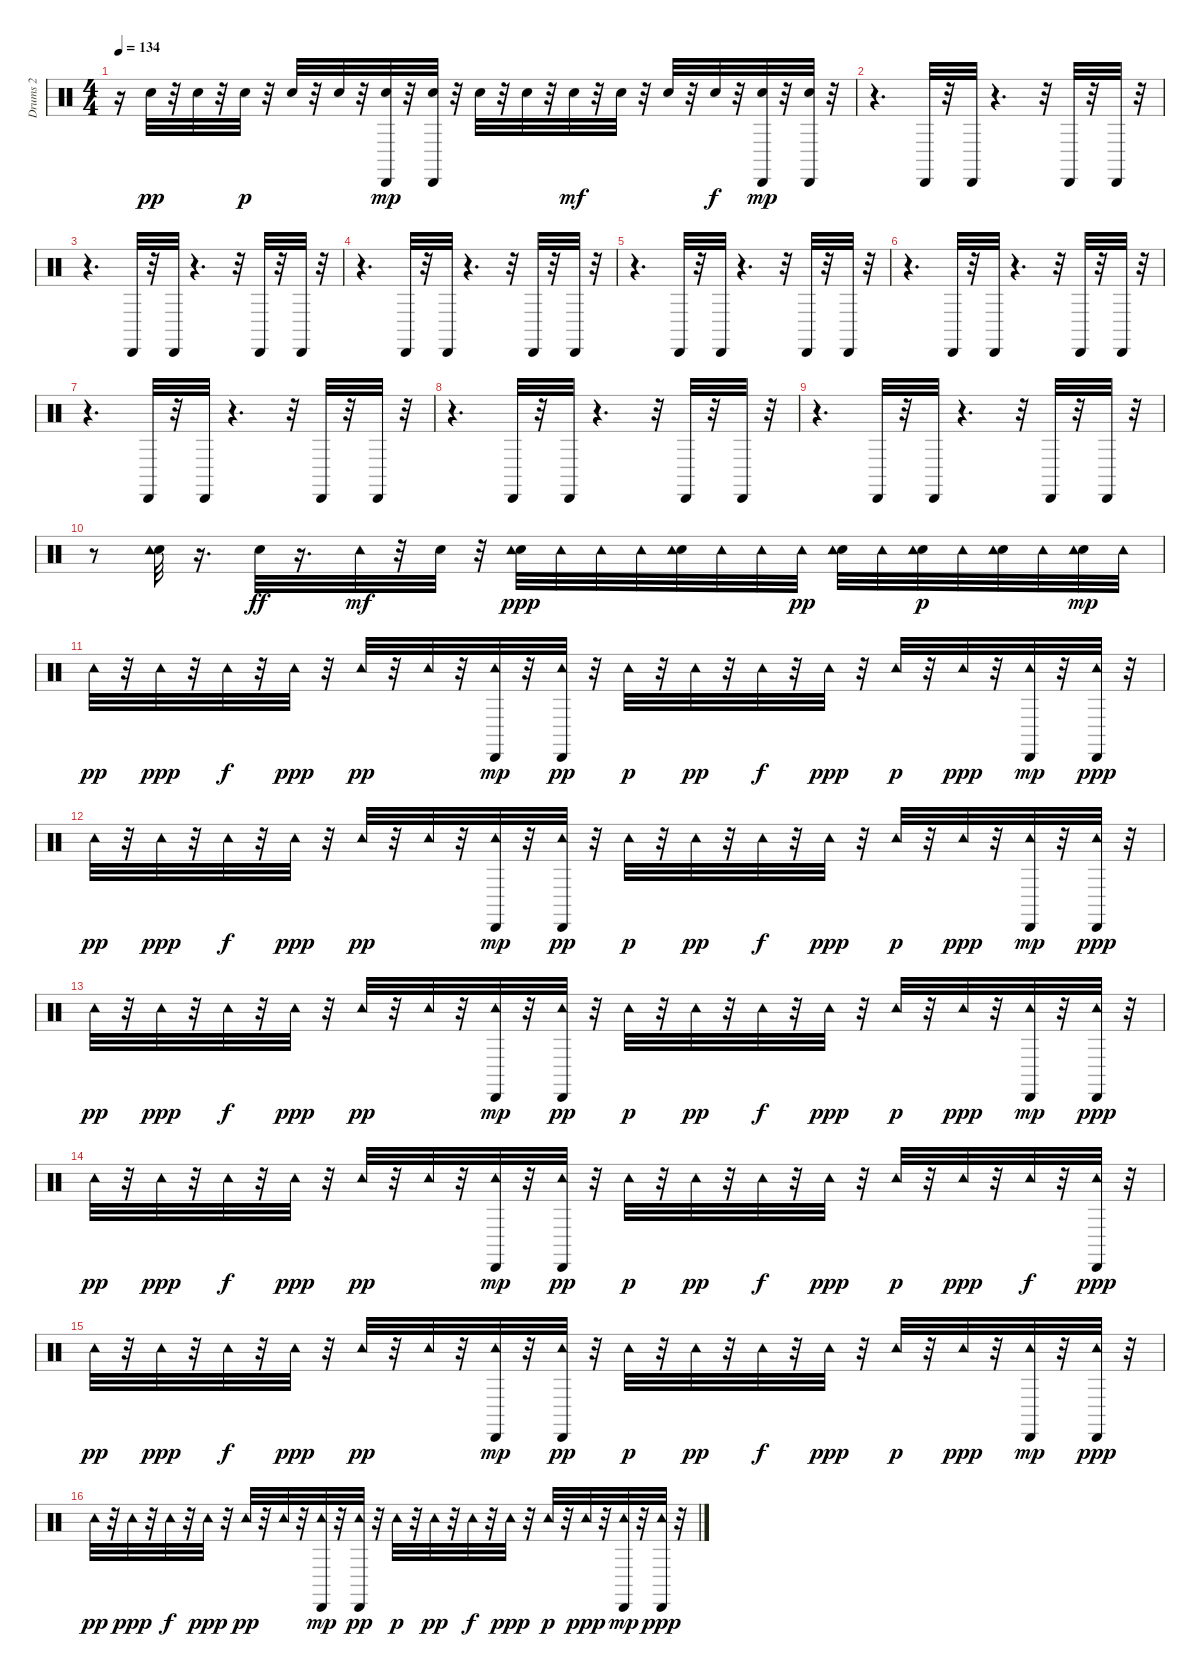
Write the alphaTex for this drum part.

\track ("Drums 2" "Drums 2") {instrument percussion}
\staff {score}
\articulation defaults
\ts (4 4)
\tempo 134
\clef neutral
\ks c
r.16{dy mp} "Snare (hit) 2".32{dy pp} r.32 "Snare (hit) 2".32 r.32 "Snare (hit) 2".32{dy p} r.32 "Snare (hit) 2".32 r.32 "Snare (hit) 2".32 r.32 ("Snare (hit) 2" "Cabasa (hit)").32{dy mp} r.32 ("Snare (hit) 2" "Cabasa (hit)").32 r.32 "Snare (hit) 2".32 r.32 "Snare (hit) 2".32 r.32 "Snare (hit) 2".32{dy mf} r.32 "Snare (hit) 2".32 r.32 "Snare (hit) 2".32 r.32 "Snare (hit) 2".32{dy f} r.32 ("Snare (hit) 2" "Cabasa (hit)").32{dy mp} r.32 ("Snare (hit) 2" "Cabasa (hit)").32 r.32 |
r.4{d} "Cabasa (hit)".32 r.32 "Cabasa (hit)".32 r.4{d} r.32 "Cabasa (hit)".32 r.32 "Cabasa (hit)".32 r.32 |
r.4{d} "Cabasa (hit)".32 r.32 "Cabasa (hit)".32 r.4{d} r.32 "Cabasa (hit)".32 r.32 "Cabasa (hit)".32 r.32 |
r.4{d} "Cabasa (hit)".32 r.32 "Cabasa (hit)".32 r.4{d} r.32 "Cabasa (hit)".32 r.32 "Cabasa (hit)".32 r.32 |
r.4{d} "Cabasa (hit)".32 r.32 "Cabasa (hit)".32 r.4{d} r.32 "Cabasa (hit)".32 r.32 "Cabasa (hit)".32 r.32 |
r.4{d} "Cabasa (hit)".32 r.32 "Cabasa (hit)".32 r.4{d} r.32 "Cabasa (hit)".32 r.32 "Cabasa (hit)".32 r.32 |
r.4{d} "Cabasa (hit)".32 r.32 "Cabasa (hit)".32 r.4{d} r.32 "Cabasa (hit)".32 r.32 "Cabasa (hit)".32 r.32 |
r.4{d} "Cabasa (hit)".32 r.32 "Cabasa (hit)".32 r.4{d} r.32 "Cabasa (hit)".32 r.32 "Cabasa (hit)".32 r.32 |
r.4{d} "Cabasa (hit)".32 r.32 "Cabasa (hit)".32 r.4{d} r.32 "Cabasa (hit)".32 r.32 "Cabasa (hit)".32 r.32 |
r.8 ("Snare (hit) 2" "Tambourine (hit)").32 r.16{d} "Snare (hit) 2".32{dy ff} r.16{d} "Tambourine (hit)".32{dy mf} r.32 "Snare (hit) 2".32 r.32 ("Snare (hit) 2" "Tambourine (hit)").32{dy ppp} "Tambourine (hit)".32 "Tambourine (hit)".32 "Tambourine (hit)".32 ("Snare (hit) 2" "Tambourine (hit)").32 "Tambourine (hit)".32 "Tambourine (hit)".32 "Tambourine (hit)".32{dy pp} ("Snare (hit) 2" "Tambourine (hit)").32 "Tambourine (hit)".32 ("Snare (hit) 2" "Tambourine (hit)").32{dy p} "Tambourine (hit)".32 ("Snare (hit) 2" "Tambourine (hit)").32 "Tambourine (hit)".32 ("Snare (hit) 2" "Tambourine (hit)").32{dy mp} "Tambourine (hit)".32 |
"Tambourine (hit)".32{dy pp} r.32 "Tambourine (hit)".32{dy ppp} r.32 "Tambourine (hit)".32{dy f} r.32 "Tambourine (hit)".32{dy ppp} r.32 "Tambourine (hit)".32{dy pp} r.32 "Tambourine (hit)".32 r.32 ("Cabasa (hit)" "Tambourine (hit)").32{dy mp} r.32 ("Cabasa (hit)" "Tambourine (hit)").32{dy pp} r.32 "Tambourine (hit)".32{dy p} r.32 "Tambourine (hit)".32{dy pp} r.32 "Tambourine (hit)".32{dy f} r.32 "Tambourine (hit)".32{dy ppp} r.32 "Tambourine (hit)".32{dy p} r.32 "Tambourine (hit)".32{dy ppp} r.32 ("Cabasa (hit)" "Tambourine (hit)").32{dy mp} r.32 ("Cabasa (hit)" "Tambourine (hit)").32{dy ppp} r.32 |
"Tambourine (hit)".32{dy pp} r.32 "Tambourine (hit)".32{dy ppp} r.32 "Tambourine (hit)".32{dy f} r.32 "Tambourine (hit)".32{dy ppp} r.32 "Tambourine (hit)".32{dy pp} r.32 "Tambourine (hit)".32 r.32 ("Cabasa (hit)" "Tambourine (hit)").32{dy mp} r.32 ("Cabasa (hit)" "Tambourine (hit)").32{dy pp} r.32 "Tambourine (hit)".32{dy p} r.32 "Tambourine (hit)".32{dy pp} r.32 "Tambourine (hit)".32{dy f} r.32 "Tambourine (hit)".32{dy ppp} r.32 "Tambourine (hit)".32{dy p} r.32 "Tambourine (hit)".32{dy ppp} r.32 ("Cabasa (hit)" "Tambourine (hit)").32{dy mp} r.32 ("Cabasa (hit)" "Tambourine (hit)").32{dy ppp} r.32 |
"Tambourine (hit)".32{dy pp} r.32 "Tambourine (hit)".32{dy ppp} r.32 "Tambourine (hit)".32{dy f} r.32 "Tambourine (hit)".32{dy ppp} r.32 "Tambourine (hit)".32{dy pp} r.32 "Tambourine (hit)".32 r.32 ("Cabasa (hit)" "Tambourine (hit)").32{dy mp} r.32 ("Cabasa (hit)" "Tambourine (hit)").32{dy pp} r.32 "Tambourine (hit)".32{dy p} r.32 "Tambourine (hit)".32{dy pp} r.32 "Tambourine (hit)".32{dy f} r.32 "Tambourine (hit)".32{dy ppp} r.32 "Tambourine (hit)".32{dy p} r.32 "Tambourine (hit)".32{dy ppp} r.32 ("Cabasa (hit)" "Tambourine (hit)").32{dy mp} r.32 ("Cabasa (hit)" "Tambourine (hit)").32{dy ppp} r.32 |
"Tambourine (hit)".32{dy pp} r.32 "Tambourine (hit)".32{dy ppp} r.32 "Tambourine (hit)".32{dy f} r.32 "Tambourine (hit)".32{dy ppp} r.32 "Tambourine (hit)".32{dy pp} r.32 "Tambourine (hit)".32 r.32 ("Cabasa (hit)" "Tambourine (hit)").32{dy mp} r.32 ("Cabasa (hit)" "Tambourine (hit)").32{dy pp} r.32 "Tambourine (hit)".32{dy p} r.32 "Tambourine (hit)".32{dy pp} r.32 "Tambourine (hit)".32{dy f} r.32 "Tambourine (hit)".32{dy ppp} r.32 "Tambourine (hit)".32{dy p} r.32 "Tambourine (hit)".32{dy ppp} r.32 "Tambourine (hit)".32{dy f} r.32 ("Cabasa (hit)" "Tambourine (hit)").32{dy ppp} r.32 |
"Tambourine (hit)".32{dy pp} r.32 "Tambourine (hit)".32{dy ppp} r.32 "Tambourine (hit)".32{dy f} r.32 "Tambourine (hit)".32{dy ppp} r.32 "Tambourine (hit)".32{dy pp} r.32 "Tambourine (hit)".32 r.32 ("Cabasa (hit)" "Tambourine (hit)").32{dy mp} r.32 ("Cabasa (hit)" "Tambourine (hit)").32{dy pp} r.32 "Tambourine (hit)".32{dy p} r.32 "Tambourine (hit)".32{dy pp} r.32 "Tambourine (hit)".32{dy f} r.32 "Tambourine (hit)".32{dy ppp} r.32 "Tambourine (hit)".32{dy p} r.32 "Tambourine (hit)".32{dy ppp} r.32 ("Cabasa (hit)" "Tambourine (hit)").32{dy mp} r.32 ("Cabasa (hit)" "Tambourine (hit)").32{dy ppp} r.32 |
"Tambourine (hit)".32{dy pp} r.32 "Tambourine (hit)".32{dy ppp} r.32 "Tambourine (hit)".32{dy f} r.32 "Tambourine (hit)".32{dy ppp} r.32 "Tambourine (hit)".32{dy pp} r.32 "Tambourine (hit)".32 r.32 ("Cabasa (hit)" "Tambourine (hit)").32{dy mp} r.32 ("Cabasa (hit)" "Tambourine (hit)").32{dy pp} r.32 "Tambourine (hit)".32{dy p} r.32 "Tambourine (hit)".32{dy pp} r.32 "Tambourine (hit)".32{dy f} r.32 "Tambourine (hit)".32{dy ppp} r.32 "Tambourine (hit)".32{dy p} r.32 "Tambourine (hit)".32{dy ppp} r.32 ("Cabasa (hit)" "Tambourine (hit)").32{dy mp} r.32 ("Cabasa (hit)" "Tambourine (hit)").32{dy ppp} r.32
